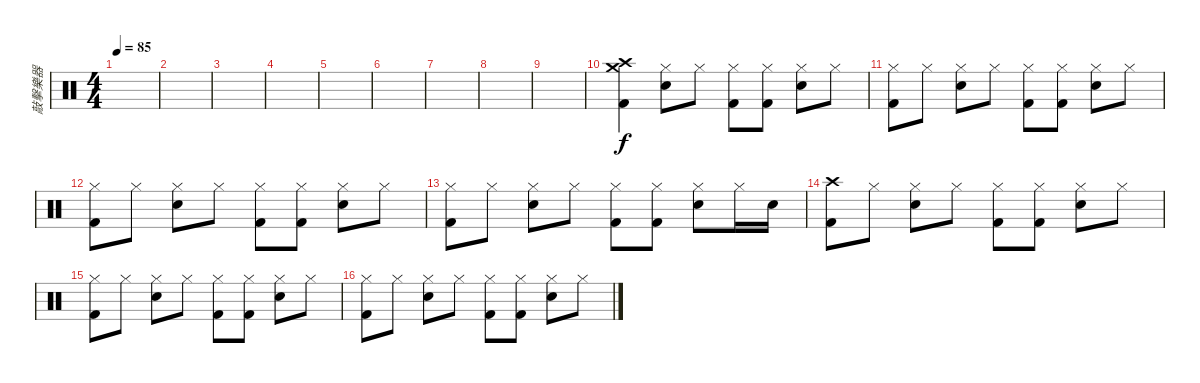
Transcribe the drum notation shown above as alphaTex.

\track ("敲擊樂器" "敲擊樂器") {instrument percussion}
\staff {score}
\articulation defaults
\ts (4 4)
\tempo 85
\clef neutral
\ks c
|
|
|
|
|
|
|
|
|
("Crash high (hit)" "Crash medium (hit)" "Kick (hit) 2").4 ("Hi-Hat (closed)" "Snare (hit) 2").8 "Hi-Hat (closed)".8 ("Hi-Hat (closed)" "Kick (hit) 2").8 ("Hi-Hat (closed)" "Kick (hit) 2").8 ("Hi-Hat (closed)" "Snare (hit) 2").8 "Hi-Hat (closed)".8 |
("Hi-Hat (closed)" "Kick (hit) 2").8 "Hi-Hat (closed)".8 ("Hi-Hat (closed)" "Snare (hit) 2").8 "Hi-Hat (closed)".8 ("Hi-Hat (closed)" "Kick (hit) 2").8 ("Hi-Hat (closed)" "Kick (hit) 2").8 ("Hi-Hat (closed)" "Snare (hit) 2").8 "Hi-Hat (closed)".8 |
("Hi-Hat (closed)" "Kick (hit) 2").8 "Hi-Hat (closed)".8 ("Hi-Hat (closed)" "Snare (hit) 2").8 "Hi-Hat (closed)".8 ("Hi-Hat (closed)" "Kick (hit) 2").8 ("Hi-Hat (closed)" "Kick (hit) 2").8 ("Hi-Hat (closed)" "Snare (hit) 2").8 "Hi-Hat (closed)".8 |
("Hi-Hat (closed)" "Kick (hit) 2").8 "Hi-Hat (closed)".8 ("Hi-Hat (closed)" "Snare (hit) 2").8 "Hi-Hat (closed)".8 ("Hi-Hat (closed)" "Kick (hit) 2").8 ("Hi-Hat (closed)" "Kick (hit) 2").8 ("Hi-Hat (closed)" "Snare (hit) 2").8 "Hi-Hat (closed)".16 "Snare (hit) 2".16 |
("Crash high (hit)" "Kick (hit) 2").8 "Hi-Hat (closed)".8 ("Hi-Hat (closed)" "Snare (hit) 2").8 "Hi-Hat (closed)".8 ("Hi-Hat (closed)" "Kick (hit) 2").8 ("Hi-Hat (closed)" "Kick (hit) 2").8 ("Hi-Hat (closed)" "Snare (hit) 2").8 "Hi-Hat (closed)".8 |
("Hi-Hat (closed)" "Kick (hit) 2").8 "Hi-Hat (closed)".8 ("Hi-Hat (closed)" "Snare (hit) 2").8 "Hi-Hat (closed)".8 ("Hi-Hat (closed)" "Kick (hit) 2").8 ("Hi-Hat (closed)" "Kick (hit) 2").8 ("Hi-Hat (closed)" "Snare (hit) 2").8 "Hi-Hat (closed)".8 |
("Hi-Hat (closed)" "Kick (hit) 2").8 "Hi-Hat (closed)".8 ("Hi-Hat (closed)" "Snare (hit) 2").8 "Hi-Hat (closed)".8 ("Hi-Hat (closed)" "Kick (hit) 2").8 ("Hi-Hat (closed)" "Kick (hit) 2").8 ("Hi-Hat (closed)" "Snare (hit) 2").8 "Hi-Hat (closed)".8
